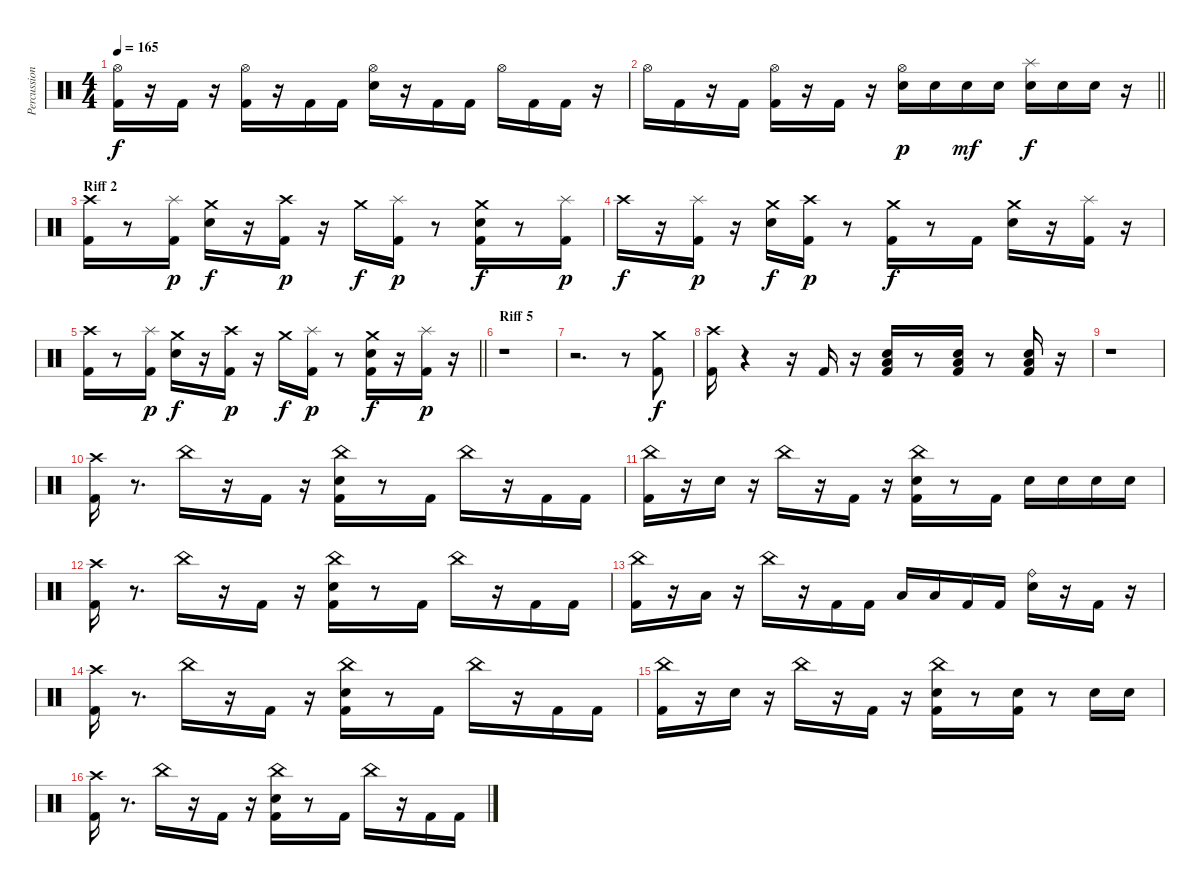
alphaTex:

\track ("Percussion" "Percussion") {instrument percussion}
\staff {score}
\articulation defaults
\ts (4 4)
\tempo 165
\clef neutral
\ks c
("Kick (hit) 2" "Hi-Hat (open)").16{dy f} r.16 "Kick (hit) 2".16 r.16 ("Kick (hit) 2" "Hi-Hat (open)").16 r.16 "Kick (hit) 2".16 "Kick (hit) 2".16 ("Snare (hit) 2" "Hi-Hat (open)").16 r.16 "Kick (hit) 2".16 "Kick (hit) 2".16 "Hi-Hat (open)".16 "Kick (hit) 2".16 "Kick (hit) 2".16 r.16 |
\barLineRight lightlight "Hi-Hat (open)".16 "Kick (hit) 2".16
r.16 "Kick (hit) 2".16 ("Kick (hit) 2" "Hi-Hat (open)").16 r.16 "Kick (hit) 2".16 r.16 ("Snare (hit) 2" "Hi-Hat (open)").16{dy p} "Snare (hit) 2".16 "Snare (hit) 2".16{dy mf} "Snare (hit) 2".16 ("Snare (hit) 2" "Splash (hit)").16{dy f} "Snare (hit) 2".16 "Snare (hit) 2".16 r.16 |
\section ("" "Riff 2")
("Kick (hit) 2" "Crash high (hit)").16 r.8 ("Kick (hit) 2" "Splash (hit)").16{dy p} ("Snare (hit) 2" "Crash medium (hit)").16{dy f} r.16 ("Kick (hit) 2" "Crash high (hit)").16{dy p} r.16 "Crash medium (hit)".16{dy f} ("Kick (hit) 2" "Splash (hit)").16{dy p} r.8 ("Kick (hit) 2" "Snare (hit) 2" "Crash medium (hit)").16{dy f} r.8 ("Kick (hit) 2" "Splash (hit)").16{dy p} |
"Crash high (hit)".16{dy f} r.16 ("Kick (hit) 2" "Splash (hit)").16{dy p} r.16 ("Snare (hit) 2" "Crash medium (hit)").16{dy f} ("Kick (hit) 2" "Crash high (hit)").16{dy p} r.8 ("Kick (hit) 2" "Crash medium (hit)").16{dy f} r.8 "Kick (hit) 2".16 ("Snare (hit) 2" "Crash medium (hit)").16 r.16 ("Kick (hit) 2" "Splash (hit)").16 r.16 |
\barLineRight lightlight
("Kick (hit) 2" "Crash high (hit)").16 r.8 ("Kick (hit) 2" "Splash (hit)").16{dy p} ("Snare (hit) 2" "Crash medium (hit)").16{dy f} r.16 ("Kick (hit) 2" "Crash high (hit)").16{dy p} r.16 "Crash medium (hit)".16{dy f} ("Kick (hit) 2" "Splash (hit)").16{dy p} r.8 ("Kick (hit) 2" "Snare (hit) 2" "Crash medium (hit)").16{dy f} r.16 ("Kick (hit) 2" "Splash (hit)").16{dy p} r.16 |
\section ("" "Riff 5")
r.1 |
r.2{d} r.8 ("Kick (hit) 2" "Crash medium (hit)").8{dy f} |
("Kick (hit) 2" "Crash high (hit)").16 r.4 r.16 "Kick (hit) 2".16 r.16 ("Kick (hit) 2" "Snare (hit) 2" "Low Floor Tom (hit)").16 r.8 ("Kick (hit) 2" "Snare (hit) 2" "Low Floor Tom (hit)").16 r.8 ("Kick (hit) 2" "Snare (hit) 2" "Low Floor Tom (hit)").16 r.16 |
r.1 |
("Kick (hit) 2" "Crash high (hit)").16 r.8{d} "China (hit)".16 r.16 "Kick (hit) 2".16 r.16 ("Kick (hit) 2" "Snare (hit) 2" "China (hit)").16 r.8 "Kick (hit) 2".16 "China (hit)".16 r.16 "Kick (hit) 2".16 "Kick (hit) 2".16 |
("Kick (hit) 2" "China (hit)").16 r.16 "Snare (hit) 2".16 r.16 "China (hit)".16 r.16 "Kick (hit) 2".16 r.16 ("Kick (hit) 2" "Snare (hit) 2" "China (hit)").16 r.8 "Kick (hit) 2".16 "Snare (hit) 2".16 "Snare (hit) 2".16 "Snare (hit) 2".16 "Snare (hit) 2".16 |
("Kick (hit) 2" "Crash high (hit)").16 r.8{d} "China (hit)".16 r.16 "Kick (hit) 2".16 r.16 ("Kick (hit) 2" "Snare (hit) 2" "China (hit)").16 r.8 "Kick (hit) 2".16 "China (hit)".16 r.16 "Kick (hit) 2".16 "Kick (hit) 2".16 |
("Kick (hit) 2" "China (hit)").16 r.16 "Low Tom (hit)".16 r.16 "China (hit)".16 r.16 "Kick (hit) 2".16 "Kick (hit) 2".16 "Low Tom (hit)".16 "Low Tom (hit)".16 "Kick (hit) 2".16 "Kick (hit) 2".16 ("Snare (hit) 2" "Ride (bell)").16 r.16 "Kick (hit) 2".16 r.16 |
("Kick (hit) 2" "Crash high (hit)").16 r.8{d} "China (hit)".16 r.16 "Kick (hit) 2".16 r.16 ("Kick (hit) 2" "Snare (hit) 2" "China (hit)").16 r.8 "Kick (hit) 2".16 "China (hit)".16 r.16 "Kick (hit) 2".16 "Kick (hit) 2".16 |
("Kick (hit) 2" "China (hit)").16 r.16 "Snare (hit) 2".16 r.16 "China (hit)".16 r.16 "Kick (hit) 2".16 r.16 ("Kick (hit) 2" "Snare (hit) 2" "China (hit)").16 r.8 ("Kick (hit) 2" "Snare (hit) 2").16 r.8 "Snare (hit) 2".16 "Snare (hit) 2".16 |
("Kick (hit) 2" "Crash high (hit)").16 r.8{d} "China (hit)".16 r.16 "Kick (hit) 2".16 r.16 ("Kick (hit) 2" "Snare (hit) 2" "China (hit)").16 r.8 "Kick (hit) 2".16 "China (hit)".16 r.16 "Kick (hit) 2".16 "Kick (hit) 2".16
